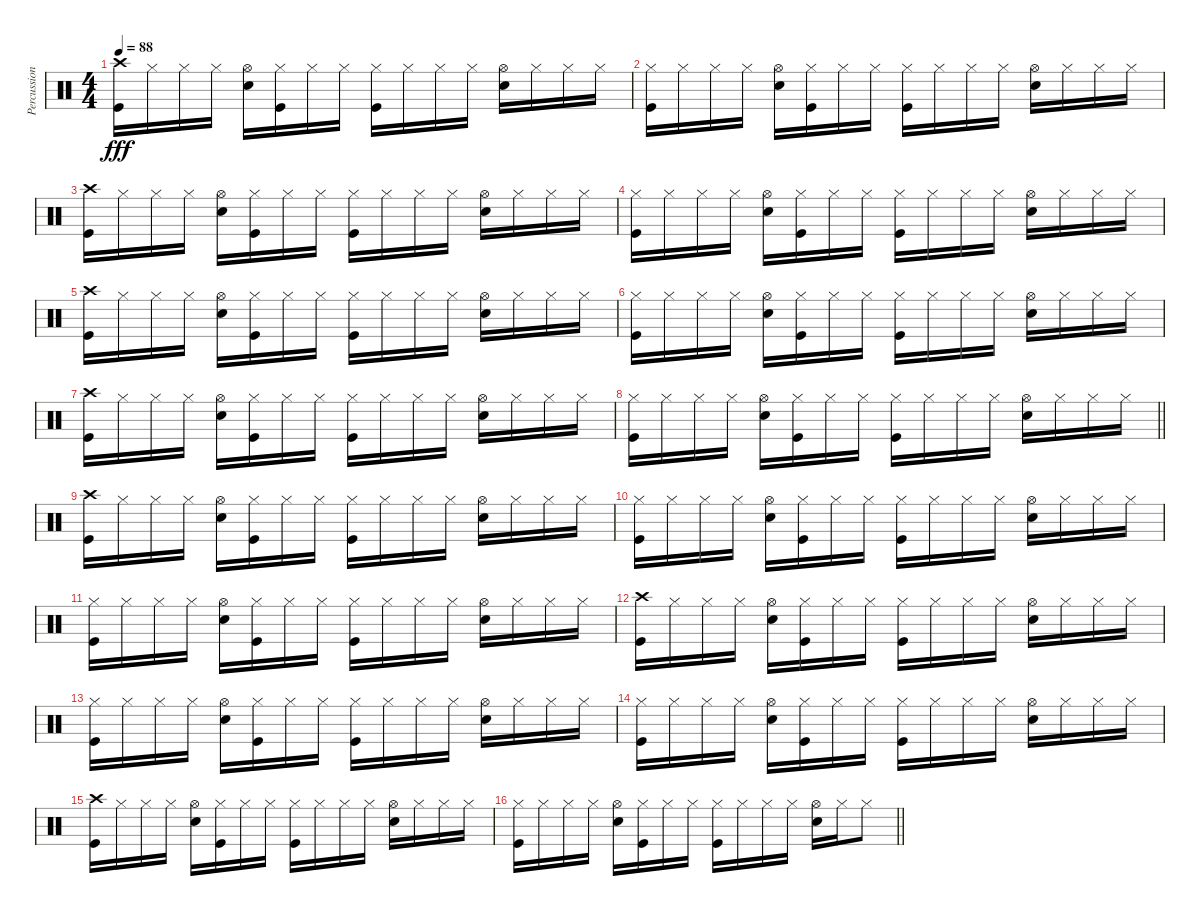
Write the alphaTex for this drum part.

\track ("Percussion" "Percussion") {instrument percussion}
\staff {score}
\articulation defaults
\ts (4 4)
\tempo 88
\clef neutral
\ks c
("Crash high (hit)" "Kick (hit)").16{dy fff} "Hi-Hat (closed)".16 "Hi-Hat (closed)".16 "Hi-Hat (closed)".16 ("Hi-Hat (open)" "Snare (hit) 2").16 ("Hi-Hat (closed)" "Kick (hit)").16 "Hi-Hat (closed)".16 "Hi-Hat (closed)".16 ("Hi-Hat (closed)" "Kick (hit)").16 "Hi-Hat (closed)".16 "Hi-Hat (closed)".16 "Hi-Hat (closed)".16 ("Hi-Hat (open)" "Snare (hit) 2").16 "Hi-Hat (closed)".16 "Hi-Hat (closed)".16 "Hi-Hat (closed)".16 |
("Hi-Hat (closed)" "Kick (hit)").16 "Hi-Hat (closed)".16 "Hi-Hat (closed)".16 "Hi-Hat (closed)".16 ("Hi-Hat (open)" "Snare (hit) 2").16 ("Hi-Hat (closed)" "Kick (hit)").16 "Hi-Hat (closed)".16 "Hi-Hat (closed)".16 ("Hi-Hat (closed)" "Kick (hit)").16 "Hi-Hat (closed)".16 "Hi-Hat (closed)".16 "Hi-Hat (closed)".16 ("Hi-Hat (open)" "Snare (hit) 2").16 "Hi-Hat (closed)".16 "Hi-Hat (closed)".16 "Hi-Hat (closed)".16 |
("Crash high (hit)" "Kick (hit)").16 "Hi-Hat (closed)".16 "Hi-Hat (closed)".16 "Hi-Hat (closed)".16 ("Hi-Hat (open)" "Snare (hit) 2").16 ("Hi-Hat (closed)" "Kick (hit)").16 "Hi-Hat (closed)".16 "Hi-Hat (closed)".16 ("Hi-Hat (closed)" "Kick (hit)").16 "Hi-Hat (closed)".16 "Hi-Hat (closed)".16 "Hi-Hat (closed)".16 ("Hi-Hat (open)" "Snare (hit) 2").16 "Hi-Hat (closed)".16 "Hi-Hat (closed)".16 "Hi-Hat (closed)".16 |
("Hi-Hat (closed)" "Kick (hit)").16 "Hi-Hat (closed)".16 "Hi-Hat (closed)".16 "Hi-Hat (closed)".16 ("Hi-Hat (open)" "Snare (hit) 2").16 ("Hi-Hat (closed)" "Kick (hit)").16 "Hi-Hat (closed)".16 "Hi-Hat (closed)".16 ("Hi-Hat (closed)" "Kick (hit)").16 "Hi-Hat (closed)".16 "Hi-Hat (closed)".16 "Hi-Hat (closed)".16 ("Hi-Hat (open)" "Snare (hit) 2").16 "Hi-Hat (closed)".16 "Hi-Hat (closed)".16 "Hi-Hat (closed)".16 |
("Crash high (hit)" "Kick (hit)").16 "Hi-Hat (closed)".16 "Hi-Hat (closed)".16 "Hi-Hat (closed)".16 ("Hi-Hat (open)" "Snare (hit) 2").16 ("Hi-Hat (closed)" "Kick (hit)").16 "Hi-Hat (closed)".16 "Hi-Hat (closed)".16 ("Hi-Hat (closed)" "Kick (hit)").16 "Hi-Hat (closed)".16 "Hi-Hat (closed)".16 "Hi-Hat (closed)".16 ("Hi-Hat (open)" "Snare (hit) 2").16 "Hi-Hat (closed)".16 "Hi-Hat (closed)".16 "Hi-Hat (closed)".16 |
("Hi-Hat (closed)" "Kick (hit)").16 "Hi-Hat (closed)".16 "Hi-Hat (closed)".16 "Hi-Hat (closed)".16 ("Hi-Hat (open)" "Snare (hit) 2").16 ("Hi-Hat (closed)" "Kick (hit)").16 "Hi-Hat (closed)".16 "Hi-Hat (closed)".16 ("Hi-Hat (closed)" "Kick (hit)").16 "Hi-Hat (closed)".16 "Hi-Hat (closed)".16 "Hi-Hat (closed)".16 ("Hi-Hat (open)" "Snare (hit) 2").16 "Hi-Hat (closed)".16 "Hi-Hat (closed)".16 "Hi-Hat (closed)".16 |
("Crash high (hit)" "Kick (hit)").16 "Hi-Hat (closed)".16 "Hi-Hat (closed)".16 "Hi-Hat (closed)".16 ("Hi-Hat (open)" "Snare (hit) 2").16 ("Hi-Hat (closed)" "Kick (hit)").16 "Hi-Hat (closed)".16 "Hi-Hat (closed)".16 ("Hi-Hat (closed)" "Kick (hit)").16 "Hi-Hat (closed)".16 "Hi-Hat (closed)".16 "Hi-Hat (closed)".16 ("Hi-Hat (open)" "Snare (hit) 2").16 "Hi-Hat (closed)".16 "Hi-Hat (closed)".16 "Hi-Hat (closed)".16 |
\barLineRight lightlight
("Hi-Hat (closed)" "Kick (hit)").16 "Hi-Hat (closed)".16 "Hi-Hat (closed)".16 "Hi-Hat (closed)".16 ("Hi-Hat (open)" "Snare (hit) 2").16 ("Hi-Hat (closed)" "Kick (hit)").16 "Hi-Hat (closed)".16 "Hi-Hat (closed)".16 ("Hi-Hat (closed)" "Kick (hit)").16 "Hi-Hat (closed)".16 "Hi-Hat (closed)".16 "Hi-Hat (closed)".16 ("Hi-Hat (open)" "Snare (hit) 2").16 "Hi-Hat (closed)".16 "Hi-Hat (closed)".16 "Hi-Hat (closed)".16 |
("Crash high (hit)" "Kick (hit)").16 "Hi-Hat (closed)".16 "Hi-Hat (closed)".16 "Hi-Hat (closed)".16 ("Hi-Hat (open)" "Snare (hit) 2").16 ("Hi-Hat (closed)" "Kick (hit)").16 "Hi-Hat (closed)".16 "Hi-Hat (closed)".16 ("Hi-Hat (closed)" "Kick (hit)").16 "Hi-Hat (closed)".16 "Hi-Hat (closed)".16 "Hi-Hat (closed)".16 ("Hi-Hat (open)" "Snare (hit) 2").16 "Hi-Hat (closed)".16 "Hi-Hat (closed)".16 "Hi-Hat (closed)".16 |
("Hi-Hat (closed)" "Kick (hit)").16 "Hi-Hat (closed)".16 "Hi-Hat (closed)".16 "Hi-Hat (closed)".16 ("Hi-Hat (open)" "Snare (hit) 2").16 ("Hi-Hat (closed)" "Kick (hit)").16 "Hi-Hat (closed)".16 "Hi-Hat (closed)".16 ("Hi-Hat (closed)" "Kick (hit)").16 "Hi-Hat (closed)".16 "Hi-Hat (closed)".16 "Hi-Hat (closed)".16 ("Hi-Hat (open)" "Snare (hit) 2").16 "Hi-Hat (closed)".16 "Hi-Hat (closed)".16 "Hi-Hat (closed)".16 |
("Hi-Hat (closed)" "Kick (hit)").16 "Hi-Hat (closed)".16 "Hi-Hat (closed)".16 "Hi-Hat (closed)".16 ("Hi-Hat (open)" "Snare (hit) 2").16 ("Hi-Hat (closed)" "Kick (hit)").16 "Hi-Hat (closed)".16 "Hi-Hat (closed)".16 ("Hi-Hat (closed)" "Kick (hit)").16 "Hi-Hat (closed)".16 "Hi-Hat (closed)".16 "Hi-Hat (closed)".16 ("Hi-Hat (open)" "Snare (hit) 2").16 "Hi-Hat (closed)".16 "Hi-Hat (closed)".16 "Hi-Hat (closed)".16 |
("Crash high (hit)" "Kick (hit)").16 "Hi-Hat (closed)".16 "Hi-Hat (closed)".16 "Hi-Hat (closed)".16 ("Hi-Hat (open)" "Snare (hit) 2").16 ("Hi-Hat (closed)" "Kick (hit)").16 "Hi-Hat (closed)".16 "Hi-Hat (closed)".16 ("Hi-Hat (closed)" "Kick (hit)").16 "Hi-Hat (closed)".16 "Hi-Hat (closed)".16 "Hi-Hat (closed)".16 ("Hi-Hat (open)" "Snare (hit) 2").16 "Hi-Hat (closed)".16 "Hi-Hat (closed)".16 "Hi-Hat (closed)".16 |
("Hi-Hat (closed)" "Kick (hit)").16 "Hi-Hat (closed)".16 "Hi-Hat (closed)".16 "Hi-Hat (closed)".16 ("Hi-Hat (open)" "Snare (hit) 2").16 ("Hi-Hat (closed)" "Kick (hit)").16 "Hi-Hat (closed)".16 "Hi-Hat (closed)".16 ("Hi-Hat (closed)" "Kick (hit)").16 "Hi-Hat (closed)".16 "Hi-Hat (closed)".16 "Hi-Hat (closed)".16 ("Hi-Hat (open)" "Snare (hit) 2").16 "Hi-Hat (closed)".16 "Hi-Hat (closed)".16 "Hi-Hat (closed)".16 |
("Hi-Hat (closed)" "Kick (hit)").16 "Hi-Hat (closed)".16 "Hi-Hat (closed)".16 "Hi-Hat (closed)".16 ("Hi-Hat (open)" "Snare (hit) 2").16 ("Hi-Hat (closed)" "Kick (hit)").16 "Hi-Hat (closed)".16 "Hi-Hat (closed)".16 ("Hi-Hat (closed)" "Kick (hit)").16 "Hi-Hat (closed)".16 "Hi-Hat (closed)".16 "Hi-Hat (closed)".16 ("Hi-Hat (open)" "Snare (hit) 2").16 "Hi-Hat (closed)".16 "Hi-Hat (closed)".16 "Hi-Hat (closed)".16 |
("Crash high (hit)" "Kick (hit)").16 "Hi-Hat (closed)".16 "Hi-Hat (closed)".16 "Hi-Hat (closed)".16 ("Hi-Hat (open)" "Snare (hit) 2").16 ("Hi-Hat (closed)" "Kick (hit)").16 "Hi-Hat (closed)".16 "Hi-Hat (closed)".16 ("Hi-Hat (closed)" "Kick (hit)").16 "Hi-Hat (closed)".16 "Hi-Hat (closed)".16 "Hi-Hat (closed)".16 ("Hi-Hat (open)" "Snare (hit) 2").16 "Hi-Hat (closed)".16 "Hi-Hat (closed)".16 "Hi-Hat (closed)".16 |
\barLineRight lightlight
("Hi-Hat (closed)" "Kick (hit)").16 "Hi-Hat (closed)".16 "Hi-Hat (closed)".16 "Hi-Hat (closed)".16 ("Hi-Hat (open)" "Snare (hit) 2").16 ("Hi-Hat (closed)" "Kick (hit)").16 "Hi-Hat (closed)".16 "Hi-Hat (closed)".16 ("Hi-Hat (closed)" "Kick (hit)").16 "Hi-Hat (closed)".16 "Hi-Hat (closed)".16 "Hi-Hat (closed)".16 ("Hi-Hat (open)" "Snare (hit) 2").16 "Hi-Hat (closed)".16 "Hi-Hat (closed)".8
